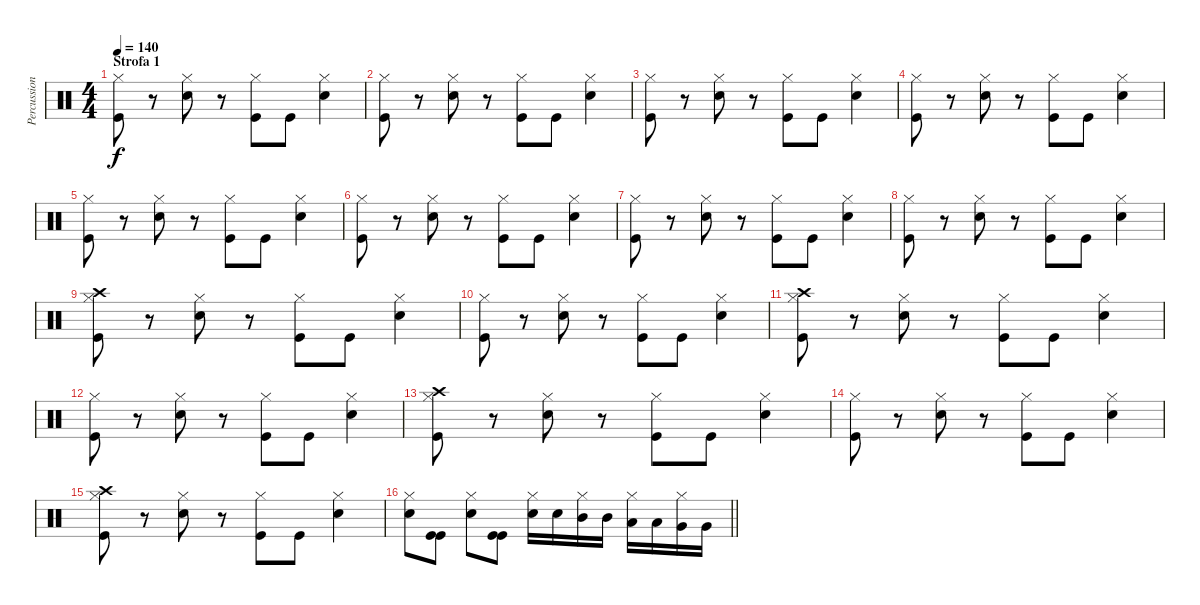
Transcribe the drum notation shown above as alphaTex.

\track ("Percussioni" "Percussion") {instrument percussion}
\staff {score}
\articulation defaults
\ts (4 4)
\section ("" "Strofa 1")
\tempo 140
\clef neutral
\ks c
("Hi-Hat (closed)" "Kick (hit)").8{dy f} r.8 ("Hi-Hat (closed)" "Snare (hit) 2").8 r.8 ("Hi-Hat (closed)" "Kick (hit)").8 "Kick (hit)".8 ("Hi-Hat (closed)" "Snare (hit) 2").4 |
("Hi-Hat (closed)" "Kick (hit)").8 r.8 ("Hi-Hat (closed)" "Snare (hit) 2").8 r.8 ("Hi-Hat (closed)" "Kick (hit)").8 "Kick (hit)".8 ("Hi-Hat (closed)" "Snare (hit) 2").4 |
("Hi-Hat (closed)" "Kick (hit)").8 r.8 ("Hi-Hat (closed)" "Snare (hit) 2").8 r.8 ("Hi-Hat (closed)" "Kick (hit)").8 "Kick (hit)".8 ("Hi-Hat (closed)" "Snare (hit) 2").4 |
("Hi-Hat (closed)" "Kick (hit)").8 r.8 ("Hi-Hat (closed)" "Snare (hit) 2").8 r.8 ("Hi-Hat (closed)" "Kick (hit)").8 "Kick (hit)".8 ("Hi-Hat (closed)" "Snare (hit) 2").4 |
("Hi-Hat (closed)" "Kick (hit)").8 r.8 ("Hi-Hat (closed)" "Snare (hit) 2").8 r.8 ("Hi-Hat (closed)" "Kick (hit)").8 "Kick (hit)".8 ("Hi-Hat (closed)" "Snare (hit) 2").4 |
("Hi-Hat (closed)" "Kick (hit)").8 r.8 ("Hi-Hat (closed)" "Snare (hit) 2").8 r.8 ("Hi-Hat (closed)" "Kick (hit)").8 "Kick (hit)".8 ("Hi-Hat (closed)" "Snare (hit) 2").4 |
("Hi-Hat (closed)" "Kick (hit)").8 r.8 ("Hi-Hat (closed)" "Snare (hit) 2").8 r.8 ("Hi-Hat (closed)" "Kick (hit)").8 "Kick (hit)".8 ("Hi-Hat (closed)" "Snare (hit) 2").4 |
("Hi-Hat (closed)" "Kick (hit)").8 r.8 ("Hi-Hat (closed)" "Snare (hit) 2").8 r.8 ("Hi-Hat (closed)" "Kick (hit)").8 "Kick (hit)".8 ("Hi-Hat (closed)" "Snare (hit) 2").4 |
("Crash high (hit)" "Hi-Hat (closed)" "Kick (hit)").8 r.8 ("Hi-Hat (closed)" "Snare (hit) 2").8 r.8 ("Hi-Hat (closed)" "Kick (hit)").8 "Kick (hit)".8 ("Hi-Hat (closed)" "Snare (hit) 2").4 |
("Hi-Hat (closed)" "Kick (hit)").8 r.8 ("Hi-Hat (closed)" "Snare (hit) 2").8 r.8 ("Hi-Hat (closed)" "Kick (hit)").8 "Kick (hit)".8 ("Hi-Hat (closed)" "Snare (hit) 2").4 |
("Crash high (hit)" "Hi-Hat (closed)" "Kick (hit)").8 r.8 ("Hi-Hat (closed)" "Snare (hit) 2").8 r.8 ("Hi-Hat (closed)" "Kick (hit)").8 "Kick (hit)".8 ("Hi-Hat (closed)" "Snare (hit) 2").4 |
("Hi-Hat (closed)" "Kick (hit)").8 r.8 ("Hi-Hat (closed)" "Snare (hit) 2").8 r.8 ("Hi-Hat (closed)" "Kick (hit)").8 "Kick (hit)".8 ("Hi-Hat (closed)" "Snare (hit) 2").4 |
("Crash high (hit)" "Hi-Hat (closed)" "Kick (hit)").8 r.8 ("Hi-Hat (closed)" "Snare (hit) 2").8 r.8 ("Hi-Hat (closed)" "Kick (hit)").8 "Kick (hit)".8 ("Hi-Hat (closed)" "Snare (hit) 2").4 |
("Hi-Hat (closed)" "Kick (hit)").8 r.8 ("Hi-Hat (closed)" "Snare (hit) 2").8 r.8 ("Hi-Hat (closed)" "Kick (hit)").8 "Kick (hit)".8 ("Hi-Hat (closed)" "Snare (hit) 2").4 |
("Crash high (hit)" "Hi-Hat (closed)" "Kick (hit)").8 r.8 ("Hi-Hat (closed)" "Snare (hit) 2").8 r.8 ("Hi-Hat (closed)" "Kick (hit)").8 "Kick (hit)".8 ("Hi-Hat (closed)" "Snare (hit) 2").4 |
\barLineRight lightlight
("Hi-Hat (closed)" "Snare (hit) 2").8 ("Kick (hit)" "Kick (hit)").8 ("Hi-Hat (closed)" "Snare (hit) 2").8 ("Kick (hit)" "Kick (hit)").8 ("Hi-Hat (closed)" "Snare (hit) 2").16 "Snare (hit) 2".16 ("Hi-Hat (closed)" "Mid Tom (hit)").16 "Mid Tom (hit)".16 ("Hi-Hat (closed)" "Low Tom (hit)").16 "Low Tom (hit)".16 ("Hi-Hat (closed)" "Very Low Tom (hit)").16 "Very Low Tom (hit)".16
